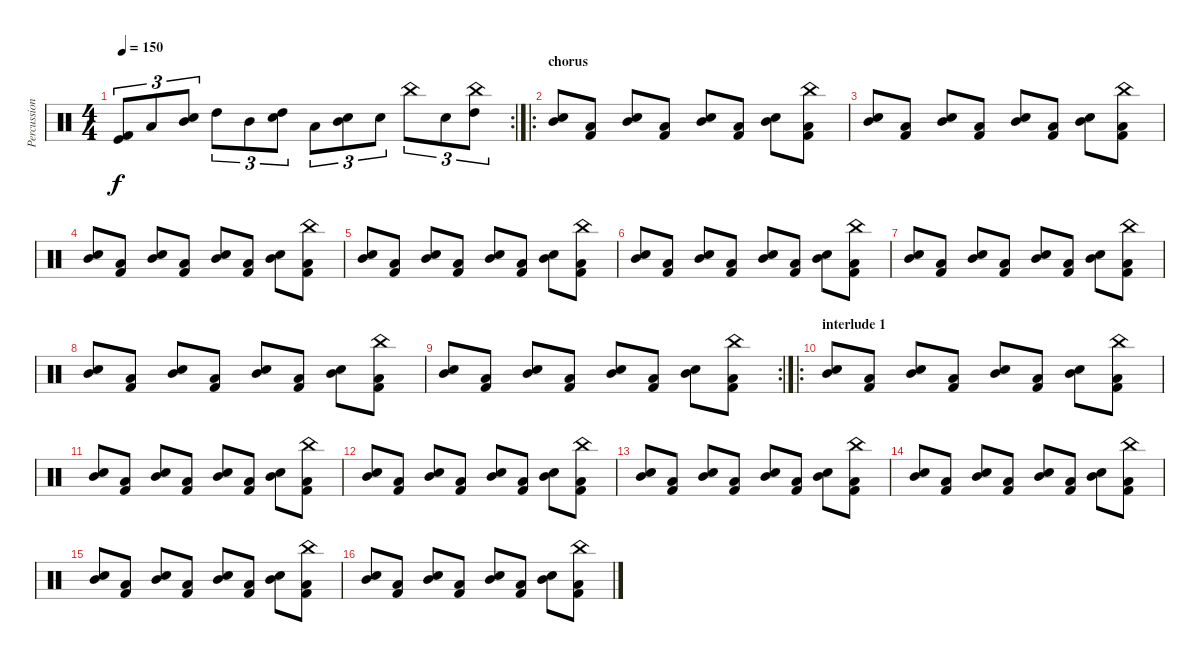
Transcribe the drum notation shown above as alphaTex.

\track ("Percussion" "Percussion") {instrument percussion}
\staff {score}
\articulation defaults
\rc 2
\ts (4 4)
\tempo 150
\clef neutral
\ks c
("Kick (hit) 2" "Kick (hit)").8{tu (3 2) dy f} "Low Tom (hit)".8{tu (3 2)} ("Mid Tom (hit)" "Snare (hit) 2").8{tu (3 2)} "High Tom (hit)".8{tu (3 2)} "Mid Tom (hit)".8{tu (3 2)} ("High Tom (hit)" "Snare (hit) 2").8{tu (3 2)} "Low Tom (hit)".8{tu (3 2)} ("Mid Tom (hit)" "Snare (hit) 2").8{tu (3 2)} "Snare (hit) 2".8{tu (3 2)} "China (hit)".8{tu (3 2)} "Snare (hit) 2".8{tu (3 2)} ("High Tom (hit)" "China (hit)").8{tu (3 2)} |
\ro
\section ("" "chorus")
("Snare (hit) 2" "Mid Tom (hit)").8 ("Low Tom (hit)" "Kick (hit) 2").8 ("Snare (hit) 2" "Mid Tom (hit)").8 ("Low Tom (hit)" "Kick (hit) 2").8 ("Snare (hit) 2" "Mid Tom (hit)").8 ("Low Tom (hit)" "Kick (hit) 2").8 ("Snare (hit) 2" "Mid Tom (hit)").8 ("China (hit)" "Low Tom (hit)" "Kick (hit) 2").8 |
("Snare (hit) 2" "Mid Tom (hit)").8 ("Low Tom (hit)" "Kick (hit) 2").8 ("Snare (hit) 2" "Mid Tom (hit)").8 ("Low Tom (hit)" "Kick (hit) 2").8 ("Snare (hit) 2" "Mid Tom (hit)").8 ("Low Tom (hit)" "Kick (hit) 2").8 ("Snare (hit) 2" "Mid Tom (hit)").8 ("China (hit)" "Low Tom (hit)" "Kick (hit) 2").8 |
("Snare (hit) 2" "Mid Tom (hit)").8 ("Low Tom (hit)" "Kick (hit) 2").8 ("Snare (hit) 2" "Mid Tom (hit)").8 ("Low Tom (hit)" "Kick (hit) 2").8 ("Snare (hit) 2" "Mid Tom (hit)").8 ("Low Tom (hit)" "Kick (hit) 2").8 ("Snare (hit) 2" "Mid Tom (hit)").8 ("China (hit)" "Low Tom (hit)" "Kick (hit) 2").8 |
("Snare (hit) 2" "Mid Tom (hit)").8 ("Low Tom (hit)" "Kick (hit) 2").8 ("Snare (hit) 2" "Mid Tom (hit)").8 ("Low Tom (hit)" "Kick (hit) 2").8 ("Snare (hit) 2" "Mid Tom (hit)").8 ("Low Tom (hit)" "Kick (hit) 2").8 ("Snare (hit) 2" "Mid Tom (hit)").8 ("China (hit)" "Low Tom (hit)" "Kick (hit) 2").8 |
("Snare (hit) 2" "Mid Tom (hit)").8 ("Low Tom (hit)" "Kick (hit) 2").8 ("Snare (hit) 2" "Mid Tom (hit)").8 ("Low Tom (hit)" "Kick (hit) 2").8 ("Snare (hit) 2" "Mid Tom (hit)").8 ("Low Tom (hit)" "Kick (hit) 2").8 ("Snare (hit) 2" "Mid Tom (hit)").8 ("China (hit)" "Low Tom (hit)" "Kick (hit) 2").8 |
("Snare (hit) 2" "Mid Tom (hit)").8 ("Low Tom (hit)" "Kick (hit) 2").8 ("Snare (hit) 2" "Mid Tom (hit)").8 ("Low Tom (hit)" "Kick (hit) 2").8 ("Snare (hit) 2" "Mid Tom (hit)").8 ("Low Tom (hit)" "Kick (hit) 2").8 ("Snare (hit) 2" "Mid Tom (hit)").8 ("China (hit)" "Low Tom (hit)" "Kick (hit) 2").8 |
("Snare (hit) 2" "Mid Tom (hit)").8 ("Low Tom (hit)" "Kick (hit) 2").8 ("Snare (hit) 2" "Mid Tom (hit)").8 ("Low Tom (hit)" "Kick (hit) 2").8 ("Snare (hit) 2" "Mid Tom (hit)").8 ("Low Tom (hit)" "Kick (hit) 2").8 ("Snare (hit) 2" "Mid Tom (hit)").8 ("China (hit)" "Low Tom (hit)" "Kick (hit) 2").8 |
\rc 2
("Snare (hit) 2" "Mid Tom (hit)").8 ("Low Tom (hit)" "Kick (hit) 2").8 ("Snare (hit) 2" "Mid Tom (hit)").8 ("Low Tom (hit)" "Kick (hit) 2").8 ("Snare (hit) 2" "Mid Tom (hit)").8 ("Low Tom (hit)" "Kick (hit) 2").8 ("Snare (hit) 2" "Mid Tom (hit)").8 ("China (hit)" "Low Tom (hit)" "Kick (hit) 2").8 |
\ro
\section ("" "interlude 1")
("Snare (hit) 2" "Mid Tom (hit)").8 ("Low Tom (hit)" "Kick (hit) 2").8 ("Snare (hit) 2" "Mid Tom (hit)").8 ("Low Tom (hit)" "Kick (hit) 2").8 ("Snare (hit) 2" "Mid Tom (hit)").8 ("Low Tom (hit)" "Kick (hit) 2").8 ("Snare (hit) 2" "Mid Tom (hit)").8 ("China (hit)" "Low Tom (hit)" "Kick (hit) 2").8 |
("Snare (hit) 2" "Mid Tom (hit)").8 ("Low Tom (hit)" "Kick (hit) 2").8 ("Snare (hit) 2" "Mid Tom (hit)").8 ("Low Tom (hit)" "Kick (hit) 2").8 ("Snare (hit) 2" "Mid Tom (hit)").8 ("Low Tom (hit)" "Kick (hit) 2").8 ("Snare (hit) 2" "Mid Tom (hit)").8 ("China (hit)" "Low Tom (hit)" "Kick (hit) 2").8 |
("Snare (hit) 2" "Mid Tom (hit)").8 ("Low Tom (hit)" "Kick (hit) 2").8 ("Snare (hit) 2" "Mid Tom (hit)").8 ("Low Tom (hit)" "Kick (hit) 2").8 ("Snare (hit) 2" "Mid Tom (hit)").8 ("Low Tom (hit)" "Kick (hit) 2").8 ("Snare (hit) 2" "Mid Tom (hit)").8 ("China (hit)" "Low Tom (hit)" "Kick (hit) 2").8 |
("Snare (hit) 2" "Mid Tom (hit)").8 ("Low Tom (hit)" "Kick (hit) 2").8 ("Snare (hit) 2" "Mid Tom (hit)").8 ("Low Tom (hit)" "Kick (hit) 2").8 ("Snare (hit) 2" "Mid Tom (hit)").8 ("Low Tom (hit)" "Kick (hit) 2").8 ("Snare (hit) 2" "Mid Tom (hit)").8 ("China (hit)" "Low Tom (hit)" "Kick (hit) 2").8 |
("Snare (hit) 2" "Mid Tom (hit)").8 ("Low Tom (hit)" "Kick (hit) 2").8 ("Snare (hit) 2" "Mid Tom (hit)").8 ("Low Tom (hit)" "Kick (hit) 2").8 ("Snare (hit) 2" "Mid Tom (hit)").8 ("Low Tom (hit)" "Kick (hit) 2").8 ("Snare (hit) 2" "Mid Tom (hit)").8 ("China (hit)" "Low Tom (hit)" "Kick (hit) 2").8 |
("Snare (hit) 2" "Mid Tom (hit)").8 ("Low Tom (hit)" "Kick (hit) 2").8 ("Snare (hit) 2" "Mid Tom (hit)").8 ("Low Tom (hit)" "Kick (hit) 2").8 ("Snare (hit) 2" "Mid Tom (hit)").8 ("Low Tom (hit)" "Kick (hit) 2").8 ("Snare (hit) 2" "Mid Tom (hit)").8 ("China (hit)" "Low Tom (hit)" "Kick (hit) 2").8 |
("Snare (hit) 2" "Mid Tom (hit)").8 ("Low Tom (hit)" "Kick (hit) 2").8 ("Snare (hit) 2" "Mid Tom (hit)").8 ("Low Tom (hit)" "Kick (hit) 2").8 ("Snare (hit) 2" "Mid Tom (hit)").8 ("Low Tom (hit)" "Kick (hit) 2").8 ("Snare (hit) 2" "Mid Tom (hit)").8 ("China (hit)" "Low Tom (hit)" "Kick (hit) 2").8
